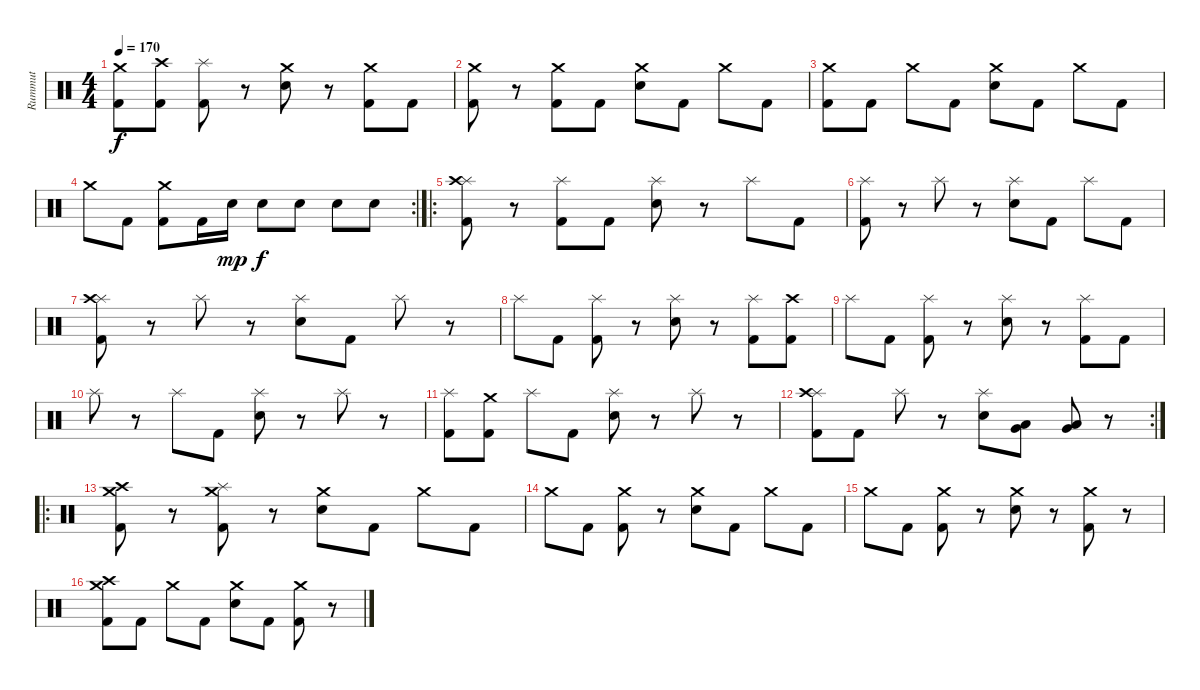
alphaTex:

\track ("Rummut" "Rummut") {instrument percussion}
\staff {score}
\articulation defaults
\ts (4 4)
\tempo 170
\clef neutral
\ks c
("Crash medium (hit)" "Kick (hit) 2").8{dy f} ("Crash high (hit)" "Kick (hit) 2").8 ("Splash (hit)" "Kick (hit) 2").8 r.8 ("Crash medium (hit)" "Electric Snare (hit)").8 r.8 ("Crash medium (hit)" "Kick (hit) 2").8 "Kick (hit) 2".8 |
("Crash medium (hit)" "Kick (hit) 2").8 r.8 ("Crash medium (hit)" "Kick (hit) 2").8 "Kick (hit) 2".8 ("Crash medium (hit)" "Electric Snare (hit)").8 "Kick (hit) 2".8 "Crash medium (hit)".8 "Kick (hit) 2".8 |
("Crash medium (hit)" "Kick (hit) 2").8 "Kick (hit) 2".8 "Crash medium (hit)".8 "Kick (hit) 2".8 ("Crash medium (hit)" "Electric Snare (hit)").8 "Kick (hit) 2".8 "Crash medium (hit)".8 "Kick (hit) 2".8 |
\rc 2 "Crash medium (hit)".8 "Kick (hit) 2".8
("Crash medium (hit)" "Kick (hit) 2").8 "Kick (hit) 2".16 "Electric Snare (hit)".16{dy mp} "Electric Snare (hit)".8{dy f} "Electric Snare (hit)".8 "Electric Snare (hit)".8 "Electric Snare (hit)".8 |
\ro
("Splash (hit)" "Crash high (hit)" "Kick (hit) 2").8 r.8 ("Splash (hit)" "Kick (hit) 2").8 "Kick (hit) 2".8 ("Splash (hit)" "Electric Snare (hit)").8 r.8 "Splash (hit)".8 "Kick (hit) 2".8 |
("Splash (hit)" "Kick (hit) 2").8 r.8 "Splash (hit)".8 r.8 ("Splash (hit)" "Electric Snare (hit)").8 "Kick (hit) 2".8 "Splash (hit)".8 "Kick (hit) 2".8 |
("Splash (hit)" "Crash high (hit)" "Kick (hit) 2").8 r.8 "Splash (hit)".8 r.8 ("Splash (hit)" "Electric Snare (hit)").8 "Kick (hit) 2".8 "Splash (hit)".8 r.8 |
"Splash (hit)".8 "Kick (hit) 2".8 ("Splash (hit)" "Kick (hit) 2").8 r.8 ("Splash (hit)" "Electric Snare (hit)").8 r.8 ("Splash (hit)" "Kick (hit) 2").8 ("Crash high (hit)" "Kick (hit) 2").8 |
"Splash (hit)".8 "Kick (hit) 2".8 ("Splash (hit)" "Kick (hit) 2").8 r.8 ("Splash (hit)" "Electric Snare (hit)").8 r.8 ("Splash (hit)" "Kick (hit) 2").8 "Kick (hit) 2".8 |
"Splash (hit)".8 r.8 "Splash (hit)".8 "Kick (hit) 2".8 ("Splash (hit)" "Electric Snare (hit)").8 r.8 "Splash (hit)".8 r.8 |
("Splash (hit)" "Kick (hit) 2").8 ("Crash medium (hit)" "Kick (hit) 2").8 "Splash (hit)".8 "Kick (hit) 2".8 ("Splash (hit)" "Electric Snare (hit)").8 r.8 "Splash (hit)".8 r.8 |
\rc 2
("Splash (hit)" "Crash high (hit)" "Kick (hit) 2").8 "Kick (hit) 2".8 "Splash (hit)".8 r.8 ("Splash (hit)" "Electric Snare (hit)").8 ("Very Low Tom (hit)" "Low Floor Tom (hit)").8 ("Very Low Tom (hit)" "Low Floor Tom (hit)").8 r.8 |
\ro
("Crash medium (hit)" "Crash high (hit)" "Kick (hit) 2").8 r.8 ("Crash medium (hit)" "Splash (hit)" "Kick (hit) 2").8 r.8 ("Crash medium (hit)" "Electric Snare (hit)").8 "Kick (hit) 2".8 "Crash medium (hit)".8 "Kick (hit) 2".8 |
"Crash medium (hit)".8 "Kick (hit) 2".8 ("Crash medium (hit)" "Kick (hit) 2").8 r.8 ("Crash medium (hit)" "Electric Snare (hit)").8 "Kick (hit) 2".8 "Crash medium (hit)".8 "Kick (hit) 2".8 |
"Crash medium (hit)".8 "Kick (hit) 2".8 ("Crash medium (hit)" "Kick (hit) 2").8 r.8 ("Crash medium (hit)" "Electric Snare (hit)").8 r.8 ("Crash medium (hit)" "Kick (hit) 2").8 r.8 |
("Crash medium (hit)" "Crash high (hit)" "Kick (hit) 2").8 "Kick (hit) 2".8 "Crash medium (hit)".8 "Kick (hit) 2".8 ("Crash medium (hit)" "Electric Snare (hit)").8 "Kick (hit) 2".8 ("Crash medium (hit)" "Kick (hit) 2").8 r.8
